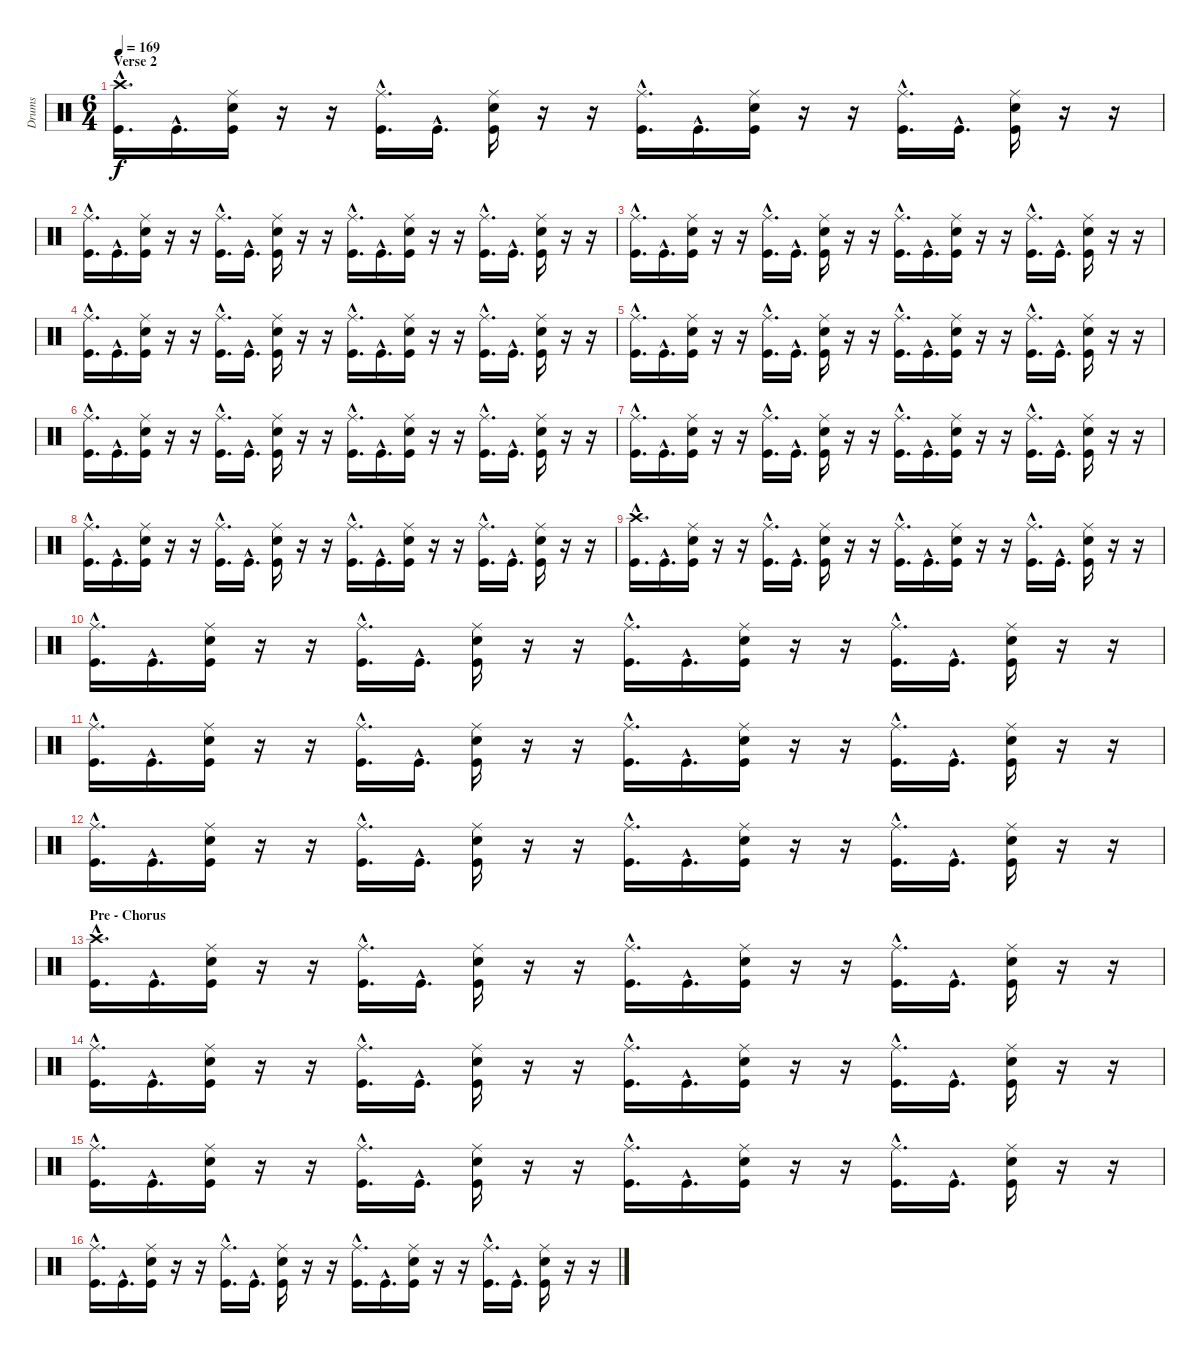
\track ("Drums" "Drums") {instrument percussion}
\staff {score}
\articulation defaults
\ts (6 4)
\section ("" "Verse 2")
\tempo 169
\clef neutral
\ks c
("Kick (hit)"{hac} "Crash high (hit)"{hac}).16{d dy f} "Kick (hit)"{hac}.16{d} ("Kick (hit)" "Electric Snare (hit)" "Ride (middle)").16 r.16 r.16 ("Kick (hit)"{hac} "Ride (middle)"{hac}).16{d} "Kick (hit)"{hac}.16{d} ("Kick (hit)" "Electric Snare (hit)" "Ride (middle)").16 r.16 r.16 ("Kick (hit)"{hac} "Ride (middle)"{hac}).16{d} "Kick (hit)"{hac}.16{d} ("Kick (hit)" "Electric Snare (hit)" "Ride (middle)").16 r.16 r.16 ("Kick (hit)"{hac} "Ride (middle)"{hac}).16{d} "Kick (hit)"{hac}.16{d} ("Kick (hit)" "Electric Snare (hit)" "Ride (middle)").16 r.16 r.16 |
("Kick (hit)"{hac} "Ride (middle)"{hac}).16{d} "Kick (hit)"{hac}.16{d} ("Kick (hit)" "Electric Snare (hit)" "Ride (middle)").16 r.16 r.16 ("Kick (hit)"{hac} "Ride (middle)"{hac}).16{d} "Kick (hit)"{hac}.16{d} ("Kick (hit)" "Electric Snare (hit)" "Ride (middle)").16 r.16 r.16 ("Kick (hit)"{hac} "Ride (middle)"{hac}).16{d} "Kick (hit)"{hac}.16{d} ("Kick (hit)" "Electric Snare (hit)" "Ride (middle)").16 r.16 r.16 ("Kick (hit)"{hac} "Ride (middle)"{hac}).16{d} "Kick (hit)"{hac}.16{d} ("Kick (hit)" "Electric Snare (hit)" "Ride (middle)").16 r.16 r.16 |
("Kick (hit)"{hac} "Ride (middle)"{hac}).16{d} "Kick (hit)"{hac}.16{d} ("Kick (hit)" "Electric Snare (hit)" "Ride (middle)").16 r.16 r.16 ("Kick (hit)"{hac} "Ride (middle)"{hac}).16{d} "Kick (hit)"{hac}.16{d} ("Kick (hit)" "Electric Snare (hit)" "Ride (middle)").16 r.16 r.16 ("Kick (hit)"{hac} "Ride (middle)"{hac}).16{d} "Kick (hit)"{hac}.16{d} ("Kick (hit)" "Electric Snare (hit)" "Ride (middle)").16 r.16 r.16 ("Kick (hit)"{hac} "Ride (middle)"{hac}).16{d} "Kick (hit)"{hac}.16{d} ("Kick (hit)" "Electric Snare (hit)" "Ride (middle)").16 r.16 r.16 |
("Kick (hit)"{hac} "Ride (middle)"{hac}).16{d} "Kick (hit)"{hac}.16{d} ("Kick (hit)" "Electric Snare (hit)" "Ride (middle)").16 r.16 r.16 ("Kick (hit)"{hac} "Ride (middle)"{hac}).16{d} "Kick (hit)"{hac}.16{d} ("Kick (hit)" "Electric Snare (hit)" "Ride (middle)").16 r.16 r.16 ("Kick (hit)"{hac} "Ride (middle)"{hac}).16{d} "Kick (hit)"{hac}.16{d} ("Kick (hit)" "Electric Snare (hit)" "Ride (middle)").16 r.16 r.16 ("Kick (hit)"{hac} "Ride (middle)"{hac}).16{d} "Kick (hit)"{hac}.16{d} ("Kick (hit)" "Electric Snare (hit)" "Ride (middle)").16 r.16 r.16 |
("Kick (hit)"{hac} "Ride (middle)"{hac}).16{d} "Kick (hit)"{hac}.16{d} ("Kick (hit)" "Electric Snare (hit)" "Ride (middle)").16 r.16 r.16 ("Kick (hit)"{hac} "Ride (middle)"{hac}).16{d} "Kick (hit)"{hac}.16{d} ("Kick (hit)" "Electric Snare (hit)" "Ride (middle)").16 r.16 r.16 ("Kick (hit)"{hac} "Ride (middle)"{hac}).16{d} "Kick (hit)"{hac}.16{d} ("Kick (hit)" "Electric Snare (hit)" "Ride (middle)").16 r.16 r.16 ("Kick (hit)"{hac} "Ride (middle)"{hac}).16{d} "Kick (hit)"{hac}.16{d} ("Kick (hit)" "Electric Snare (hit)" "Ride (middle)").16 r.16 r.16 |
("Kick (hit)"{hac} "Ride (middle)"{hac}).16{d} "Kick (hit)"{hac}.16{d} ("Kick (hit)" "Electric Snare (hit)" "Ride (middle)").16 r.16 r.16 ("Kick (hit)"{hac} "Ride (middle)"{hac}).16{d} "Kick (hit)"{hac}.16{d} ("Kick (hit)" "Electric Snare (hit)" "Ride (middle)").16 r.16 r.16 ("Kick (hit)"{hac} "Ride (middle)"{hac}).16{d} "Kick (hit)"{hac}.16{d} ("Kick (hit)" "Electric Snare (hit)" "Ride (middle)").16 r.16 r.16 ("Kick (hit)"{hac} "Ride (middle)"{hac}).16{d} "Kick (hit)"{hac}.16{d} ("Kick (hit)" "Electric Snare (hit)" "Ride (middle)").16 r.16 r.16 |
("Kick (hit)"{hac} "Ride (middle)"{hac}).16{d} "Kick (hit)"{hac}.16{d} ("Kick (hit)" "Electric Snare (hit)" "Ride (middle)").16 r.16 r.16 ("Kick (hit)"{hac} "Ride (middle)"{hac}).16{d} "Kick (hit)"{hac}.16{d} ("Kick (hit)" "Electric Snare (hit)" "Ride (middle)").16 r.16 r.16 ("Kick (hit)"{hac} "Ride (middle)"{hac}).16{d} "Kick (hit)"{hac}.16{d} ("Kick (hit)" "Electric Snare (hit)" "Ride (middle)").16 r.16 r.16 ("Kick (hit)"{hac} "Ride (middle)"{hac}).16{d} "Kick (hit)"{hac}.16{d} ("Kick (hit)" "Electric Snare (hit)" "Ride (middle)").16 r.16 r.16 |
("Kick (hit)"{hac} "Ride (middle)"{hac}).16{d} "Kick (hit)"{hac}.16{d} ("Kick (hit)" "Electric Snare (hit)" "Ride (middle)").16 r.16 r.16 ("Kick (hit)"{hac} "Ride (middle)"{hac}).16{d} "Kick (hit)"{hac}.16{d} ("Kick (hit)" "Electric Snare (hit)" "Ride (middle)").16 r.16 r.16 ("Kick (hit)"{hac} "Ride (middle)"{hac}).16{d} "Kick (hit)"{hac}.16{d} ("Kick (hit)" "Electric Snare (hit)" "Ride (middle)").16 r.16 r.16 ("Kick (hit)"{hac} "Ride (middle)"{hac}).16{d} "Kick (hit)"{hac}.16{d} ("Kick (hit)" "Electric Snare (hit)" "Ride (middle)").16 r.16 r.16 |
("Kick (hit)"{hac} "Crash high (hit)"{hac}).16{d} "Kick (hit)"{hac}.16{d} ("Kick (hit)" "Electric Snare (hit)" "Ride (middle)").16 r.16 r.16 ("Kick (hit)"{hac} "Ride (middle)"{hac}).16{d} "Kick (hit)"{hac}.16{d} ("Kick (hit)" "Electric Snare (hit)" "Ride (middle)").16 r.16 r.16 ("Kick (hit)"{hac} "Ride (middle)"{hac}).16{d} "Kick (hit)"{hac}.16{d} ("Kick (hit)" "Electric Snare (hit)" "Ride (middle)").16 r.16 r.16 ("Kick (hit)"{hac} "Ride (middle)"{hac}).16{d} "Kick (hit)"{hac}.16{d} ("Kick (hit)" "Electric Snare (hit)" "Ride (middle)").16 r.16 r.16 |
("Kick (hit)"{hac} "Ride (middle)"{hac}).16{d} "Kick (hit)"{hac}.16{d} ("Kick (hit)" "Electric Snare (hit)" "Ride (middle)").16 r.16 r.16 ("Kick (hit)"{hac} "Ride (middle)"{hac}).16{d} "Kick (hit)"{hac}.16{d} ("Kick (hit)" "Electric Snare (hit)" "Ride (middle)").16 r.16 r.16 ("Kick (hit)"{hac} "Ride (middle)"{hac}).16{d} "Kick (hit)"{hac}.16{d} ("Kick (hit)" "Electric Snare (hit)" "Ride (middle)").16 r.16 r.16 ("Kick (hit)"{hac} "Ride (middle)"{hac}).16{d} "Kick (hit)"{hac}.16{d} ("Kick (hit)" "Electric Snare (hit)" "Ride (middle)").16 r.16 r.16 |
("Kick (hit)"{hac} "Ride (middle)"{hac}).16{d} "Kick (hit)"{hac}.16{d} ("Kick (hit)" "Electric Snare (hit)" "Ride (middle)").16 r.16 r.16 ("Kick (hit)"{hac} "Ride (middle)"{hac}).16{d} "Kick (hit)"{hac}.16{d} ("Kick (hit)" "Electric Snare (hit)" "Ride (middle)").16 r.16 r.16 ("Kick (hit)"{hac} "Ride (middle)"{hac}).16{d} "Kick (hit)"{hac}.16{d} ("Kick (hit)" "Electric Snare (hit)" "Ride (middle)").16 r.16 r.16 ("Kick (hit)"{hac} "Ride (middle)"{hac}).16{d} "Kick (hit)"{hac}.16{d} ("Kick (hit)" "Electric Snare (hit)" "Ride (middle)").16 r.16 r.16 |
("Kick (hit)"{hac} "Ride (middle)"{hac}).16{d} "Kick (hit)"{hac}.16{d} ("Kick (hit)" "Electric Snare (hit)" "Ride (middle)").16 r.16 r.16 ("Kick (hit)"{hac} "Ride (middle)"{hac}).16{d} "Kick (hit)"{hac}.16{d} ("Kick (hit)" "Electric Snare (hit)" "Ride (middle)").16 r.16 r.16 ("Kick (hit)"{hac} "Ride (middle)"{hac}).16{d} "Kick (hit)"{hac}.16{d} ("Kick (hit)" "Electric Snare (hit)" "Ride (middle)").16 r.16 r.16 ("Kick (hit)"{hac} "Ride (middle)"{hac}).16{d} "Kick (hit)"{hac}.16{d} ("Kick (hit)" "Electric Snare (hit)" "Ride (middle)").16 r.16 r.16 |
\section ("" "Pre - Chorus")
("Kick (hit)"{hac} "Crash high (hit)"{hac}).16{d} "Kick (hit)"{hac}.16{d} ("Kick (hit)" "Electric Snare (hit)" "Ride (middle)").16 r.16 r.16 ("Kick (hit)"{hac} "Ride (middle)"{hac}).16{d} "Kick (hit)"{hac}.16{d} ("Kick (hit)" "Electric Snare (hit)" "Ride (middle)").16 r.16 r.16 ("Kick (hit)"{hac} "Ride (middle)"{hac}).16{d} "Kick (hit)"{hac}.16{d} ("Kick (hit)" "Electric Snare (hit)" "Ride (middle)").16 r.16 r.16 ("Kick (hit)"{hac} "Ride (middle)"{hac}).16{d} "Kick (hit)"{hac}.16{d} ("Kick (hit)" "Electric Snare (hit)" "Ride (middle)").16 r.16 r.16 |
("Kick (hit)"{hac} "Ride (middle)"{hac}).16{d} "Kick (hit)"{hac}.16{d} ("Kick (hit)" "Electric Snare (hit)" "Ride (middle)").16 r.16 r.16 ("Kick (hit)"{hac} "Ride (middle)"{hac}).16{d} "Kick (hit)"{hac}.16{d} ("Kick (hit)" "Electric Snare (hit)" "Ride (middle)").16 r.16 r.16 ("Kick (hit)"{hac} "Ride (middle)"{hac}).16{d} "Kick (hit)"{hac}.16{d} ("Kick (hit)" "Electric Snare (hit)" "Ride (middle)").16 r.16 r.16 ("Kick (hit)"{hac} "Ride (middle)"{hac}).16{d} "Kick (hit)"{hac}.16{d} ("Kick (hit)" "Electric Snare (hit)" "Ride (middle)").16 r.16 r.16 |
("Kick (hit)"{hac} "Ride (middle)"{hac}).16{d} "Kick (hit)"{hac}.16{d} ("Kick (hit)" "Electric Snare (hit)" "Ride (middle)").16 r.16 r.16 ("Kick (hit)"{hac} "Ride (middle)"{hac}).16{d} "Kick (hit)"{hac}.16{d} ("Kick (hit)" "Electric Snare (hit)" "Ride (middle)").16 r.16 r.16 ("Kick (hit)"{hac} "Ride (middle)"{hac}).16{d} "Kick (hit)"{hac}.16{d} ("Kick (hit)" "Electric Snare (hit)" "Ride (middle)").16 r.16 r.16 ("Kick (hit)"{hac} "Ride (middle)"{hac}).16{d} "Kick (hit)"{hac}.16{d} ("Kick (hit)" "Electric Snare (hit)" "Ride (middle)").16 r.16 r.16 |
("Kick (hit)"{hac} "Ride (middle)"{hac}).16{d} "Kick (hit)"{hac}.16{d} ("Kick (hit)" "Electric Snare (hit)" "Ride (middle)").16 r.16 r.16 ("Kick (hit)"{hac} "Ride (middle)"{hac}).16{d} "Kick (hit)"{hac}.16{d} ("Kick (hit)" "Electric Snare (hit)" "Ride (middle)").16 r.16 r.16 ("Kick (hit)"{hac} "Ride (middle)"{hac}).16{d} "Kick (hit)"{hac}.16{d} ("Kick (hit)" "Electric Snare (hit)" "Ride (middle)").16 r.16 r.16 ("Kick (hit)"{hac} "Ride (middle)"{hac}).16{d} "Kick (hit)"{hac}.16{d} ("Kick (hit)" "Electric Snare (hit)" "Ride (middle)").16 r.16 r.16
